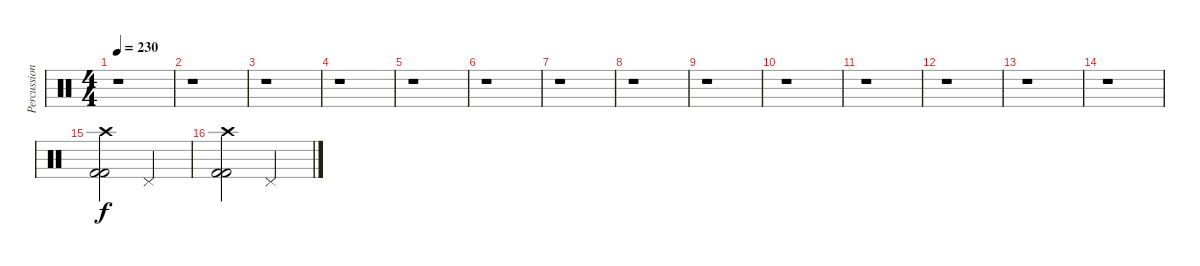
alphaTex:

\track ("Percussion" "Percussion") {instrument percussion}
\staff {score}
\articulation defaults
\ts (4 4)
\tempo 230
\clef neutral
\ks c
r.1{dy f} |
r.1 |
r.1 |
r.1 |
r.1 |
r.1 |
r.1 |
r.1 |
r.1 |
r.1 |
r.1 |
r.1 |
r.1 |
r.1 |
("Crash high (hit)" "Kick (hit) 2" "Kick (hit) 2").2 "Pedal Hi-Hat (hit)".2 |
("Crash high (hit)" "Kick (hit) 2" "Kick (hit) 2").2 "Pedal Hi-Hat (hit)".2
